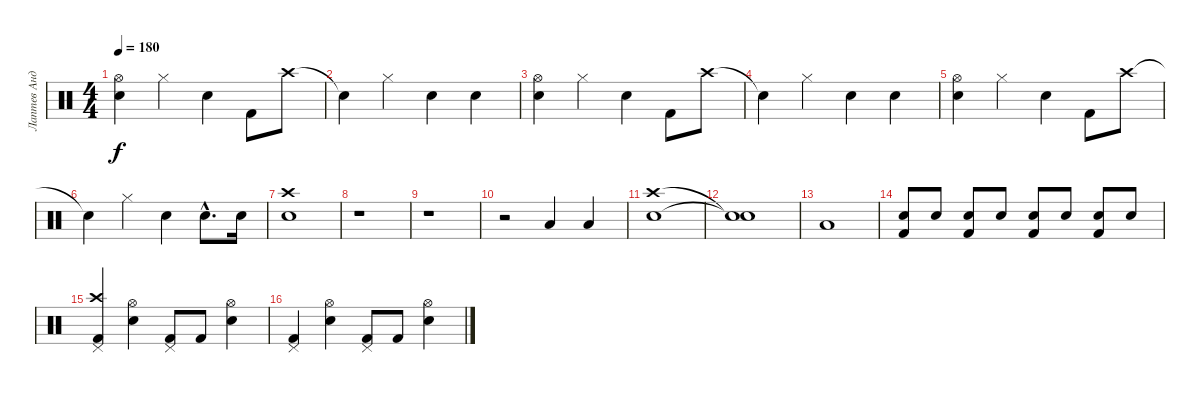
\track ("Лаптев Андрей" "Лаптев Анд") {instrument percussion}
\staff {score}
\articulation defaults
\ts (4 4)
\tempo 180
\clef neutral
\ks c
("Snare (hit) 2" "Hi-Hat (open)").4{dy f} "Hi-Hat (closed)".4 "Snare (hit) 2".4 "Kick (hit) 2".8 "Crash high (hit)".8 |
"Snare (hit)"{t}.4 "Hi-Hat (closed)".4 "Snare (hit) 2".4 "Snare (hit) 2".4 |
("Snare (hit) 2" "Hi-Hat (open)").4 "Hi-Hat (closed)".4 "Snare (hit) 2".4 "Kick (hit) 2".8 "Crash high (hit)".8 |
"Snare (hit)"{t}.4 "Hi-Hat (closed)".4 "Snare (hit) 2".4 "Snare (hit) 2".4 |
("Snare (hit) 2" "Hi-Hat (open)").4 "Hi-Hat (closed)".4 "Snare (hit) 2".4 "Kick (hit) 2".8 "Crash high (hit)".8 |
"Snare (hit)"{t}.4 "Hi-Hat (closed)".4 "Snare (hit) 2".4 "Snare (hit) 2"{hac}.8{d} "Snare (hit) 2".16 |
("Snare (hit) 2" "Crash high (hit)").1 |
r.1 |
r.1 |
r.2 "Low Tom (hit)".4 "Low Tom (hit)".4 |
("Snare (hit) 2" "Crash high (hit)").1 |
("Snare (hit)"{t} "Snare (hit)"{t}).1 |
"Low Tom (hit)".1 |
("Snare (hit) 2" "Kick (hit) 2").8 "Snare (hit) 2".8 ("Snare (hit) 2" "Kick (hit) 2").8 "Snare (hit) 2".8 ("Snare (hit) 2" "Kick (hit) 2").8 "Snare (hit) 2".8 ("Snare (hit) 2" "Kick (hit) 2").8 "Snare (hit) 2".8 |
("Kick (hit) 2" "Crash high (hit)" "Pedal Hi-Hat (hit)").4 ("Snare (hit) 2" "Hi-Hat (open)").4 ("Kick (hit) 2" "Pedal Hi-Hat (hit)").8 "Kick (hit) 2".8 ("Snare (hit) 2" "Hi-Hat (open)").4 |
("Kick (hit) 2" "Pedal Hi-Hat (hit)").4 ("Snare (hit) 2" "Hi-Hat (open)").4 ("Kick (hit) 2" "Pedal Hi-Hat (hit)").8 "Kick (hit) 2".8 ("Snare (hit) 2" "Hi-Hat (open)").4
